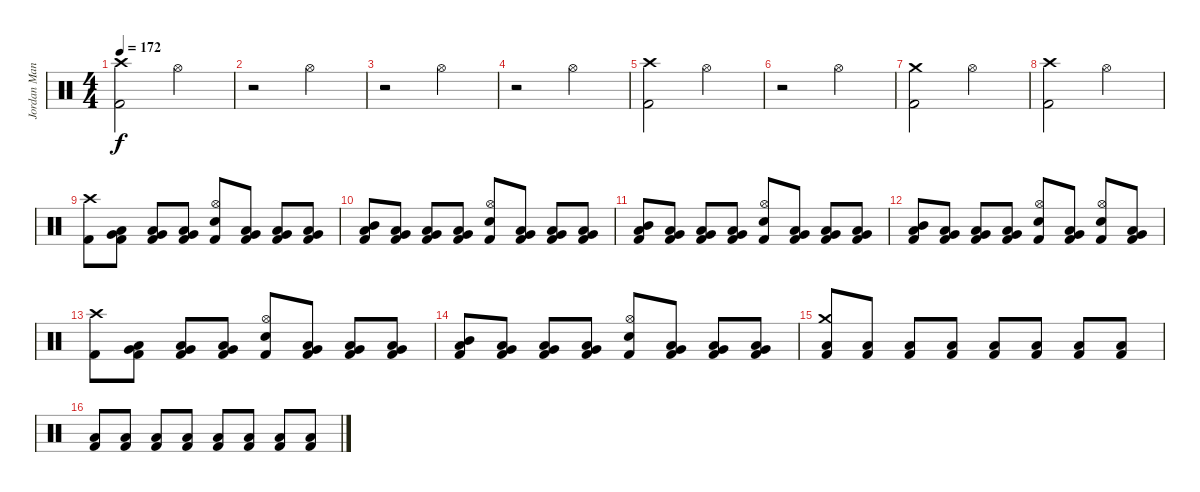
\track ("Jordan Mancino" "Jordan Man") {instrument percussion}
\staff {score}
\articulation defaults
\ts (4 4)
\tempo 172
\clef neutral
\ks c
("Crash high (hit)" "Kick (hit) 2").2{dy f} "Hi-Hat (open)".2 |
r.2 "Hi-Hat (open)".2 |
r.2 "Hi-Hat (open)".2 |
r.2 "Hi-Hat (open)".2 |
("Crash high (hit)" "Kick (hit) 2").2 "Hi-Hat (open)".2 |
r.2 "Hi-Hat (open)".2 |
("Crash medium (hit)" "Kick (hit) 2").2 "Hi-Hat (open)".2 |
("Crash high (hit)" "Kick (hit) 2").2 "Hi-Hat (open)".2 |
("Crash high (hit)" "Kick (hit) 2").8 ("Very Low Tom (hit)" "Low Floor Tom (hit)" "Kick (hit) 2").8 ("Low Tom (hit)" "Very Low Tom (hit)" "Kick (hit) 2").8 ("Very Low Tom (hit)" "Low Floor Tom (hit)" "Kick (hit) 2").8 ("Hi-Hat (open)" "Electric Snare (hit)" "Kick (hit) 2").8 ("Very Low Tom (hit)" "Low Floor Tom (hit)" "Kick (hit) 2").8 ("Low Tom (hit)" "Very Low Tom (hit)" "Kick (hit) 2").8 ("Very Low Tom (hit)" "Low Floor Tom (hit)" "Kick (hit) 2").8 |
("Mid Tom (hit)" "Low Tom (hit)" "Kick (hit) 2").8 ("Very Low Tom (hit)" "Low Floor Tom (hit)" "Kick (hit) 2").8 ("Low Tom (hit)" "Very Low Tom (hit)" "Kick (hit) 2").8 ("Very Low Tom (hit)" "Low Floor Tom (hit)" "Kick (hit) 2").8 ("Hi-Hat (open)" "Electric Snare (hit)" "Kick (hit) 2").8 ("Very Low Tom (hit)" "Low Floor Tom (hit)" "Kick (hit) 2").8 ("Low Tom (hit)" "Very Low Tom (hit)" "Kick (hit) 2").8 ("Very Low Tom (hit)" "Low Floor Tom (hit)" "Kick (hit) 2").8 |
("Mid Tom (hit)" "Low Tom (hit)" "Kick (hit) 2").8 ("Very Low Tom (hit)" "Low Floor Tom (hit)" "Kick (hit) 2").8 ("Low Tom (hit)" "Very Low Tom (hit)" "Kick (hit) 2").8 ("Very Low Tom (hit)" "Low Floor Tom (hit)" "Kick (hit) 2").8 ("Hi-Hat (open)" "Electric Snare (hit)" "Kick (hit) 2").8 ("Very Low Tom (hit)" "Low Floor Tom (hit)" "Kick (hit) 2").8 ("Low Tom (hit)" "Very Low Tom (hit)" "Kick (hit) 2").8 ("Very Low Tom (hit)" "Low Floor Tom (hit)" "Kick (hit) 2").8 |
("Mid Tom (hit)" "Low Tom (hit)" "Kick (hit) 2").8 ("Very Low Tom (hit)" "Low Floor Tom (hit)" "Kick (hit) 2").8 ("Low Tom (hit)" "Very Low Tom (hit)" "Kick (hit) 2").8 ("Very Low Tom (hit)" "Low Floor Tom (hit)" "Kick (hit) 2").8 ("Hi-Hat (open)" "Electric Snare (hit)" "Kick (hit) 2").8 ("Very Low Tom (hit)" "Low Floor Tom (hit)" "Kick (hit) 2").8 ("Hi-Hat (open)" "Electric Snare (hit)" "Kick (hit) 2").8 ("Very Low Tom (hit)" "Low Floor Tom (hit)" "Kick (hit) 2").8 |
("Crash high (hit)" "Kick (hit) 2").8 ("Very Low Tom (hit)" "Low Floor Tom (hit)" "Kick (hit) 2").8 ("Low Tom (hit)" "Very Low Tom (hit)" "Kick (hit) 2").8 ("Very Low Tom (hit)" "Low Floor Tom (hit)" "Kick (hit) 2").8 ("Hi-Hat (open)" "Electric Snare (hit)" "Kick (hit) 2").8 ("Very Low Tom (hit)" "Low Floor Tom (hit)" "Kick (hit) 2").8 ("Low Tom (hit)" "Very Low Tom (hit)" "Kick (hit) 2").8 ("Very Low Tom (hit)" "Low Floor Tom (hit)" "Kick (hit) 2").8 |
("Mid Tom (hit)" "Low Tom (hit)" "Kick (hit) 2").8 ("Very Low Tom (hit)" "Low Floor Tom (hit)" "Kick (hit) 2").8 ("Low Tom (hit)" "Very Low Tom (hit)" "Kick (hit) 2").8 ("Very Low Tom (hit)" "Low Floor Tom (hit)" "Kick (hit) 2").8 ("Hi-Hat (open)" "Electric Snare (hit)" "Kick (hit) 2").8 ("Very Low Tom (hit)" "Low Floor Tom (hit)" "Kick (hit) 2").8 ("Low Tom (hit)" "Very Low Tom (hit)" "Kick (hit) 2").8 ("Very Low Tom (hit)" "Low Floor Tom (hit)" "Kick (hit) 2").8 |
("Crash medium (hit)" "Low Floor Tom (hit)" "Kick (hit) 2").8 ("Low Floor Tom (hit)" "Kick (hit) 2").8 ("Low Floor Tom (hit)" "Kick (hit) 2").8 ("Low Floor Tom (hit)" "Kick (hit) 2").8 ("Low Floor Tom (hit)" "Kick (hit) 2").8 ("Low Floor Tom (hit)" "Kick (hit) 2").8 ("Low Floor Tom (hit)" "Kick (hit) 2").8 ("Low Floor Tom (hit)" "Kick (hit) 2").8 |
("Low Floor Tom (hit)" "Kick (hit) 2").8 ("Low Floor Tom (hit)" "Kick (hit) 2").8 ("Low Floor Tom (hit)" "Kick (hit) 2").8 ("Low Floor Tom (hit)" "Kick (hit) 2").8 ("Low Floor Tom (hit)" "Kick (hit) 2").8 ("Low Floor Tom (hit)" "Kick (hit) 2").8 ("Low Floor Tom (hit)" "Kick (hit) 2").8 ("Low Floor Tom (hit)" "Kick (hit) 2").8
